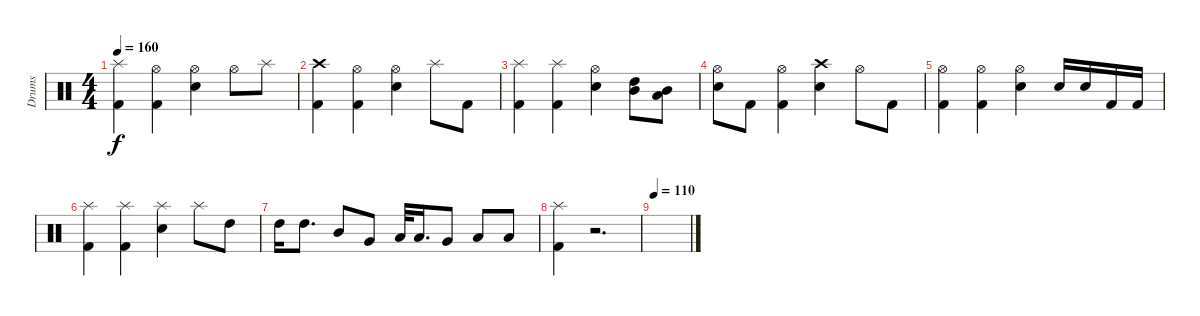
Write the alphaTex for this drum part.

\track ("Drums" "Drums") {instrument percussion}
\staff {score}
\articulation defaults
\ts (4 4)
\tempo 160
\clef neutral
\ks c
("Splash (hit)" "Kick (hit) 2").4{dy f} ("Hi-Hat (open)" "Kick (hit) 2").4 ("Hi-Hat (open)" "Electric Snare (hit)").4 "Hi-Hat (open)".8 "Splash (hit)".8 |
("Crash high (hit)" "Kick (hit) 2").4 ("Hi-Hat (open)" "Kick (hit) 2").4 ("Hi-Hat (open)" "Electric Snare (hit)").4 "Splash (hit)".8 "Kick (hit) 2".8 |
("Splash (hit)" "Kick (hit) 2").4 ("Splash (hit)" "Kick (hit) 2").4 ("Hi-Hat (open)" "Electric Snare (hit)").4 ("High Tom (hit)" "Mid Tom (hit)").8 ("Mid Tom (hit)" "Low Tom (hit)").8 |
("Electric Snare (hit)" "Hi-Hat (open)").8 "Kick (hit) 2".8 ("Hi-Hat (open)" "Kick (hit) 2").4 ("Crash high (hit)" "Electric Snare (hit)").4 "Hi-Hat (open)".8 "Kick (hit) 2".8 |
("Hi-Hat (open)" "Kick (hit) 2").4 ("Hi-Hat (open)" "Kick (hit) 2").4 ("Hi-Hat (open)" "Electric Snare (hit)").4 "Electric Snare (hit)".16 "Electric Snare (hit)".16 "Kick (hit) 2".16 "Kick (hit) 2".16 |
("Splash (hit)" "Kick (hit) 2").4 ("Splash (hit)" "Kick (hit) 2").4 ("Splash (hit)" "Electric Snare (hit)").4 "Splash (hit)".8 "High Tom (hit)".8 |
"High Tom (hit)".16 "High Tom (hit)".8{d} "Mid Tom (hit)".8 "Very Low Tom (hit)".8 "Low Tom (hit)".32 "Low Tom (hit)".16{d} "Very Low Tom (hit)".8 "Low Floor Tom (hit)".8 "Low Floor Tom (hit)".8 |
("Splash (hit)" "Kick (hit) 2").4 r.2{d} |
\tempo 110
